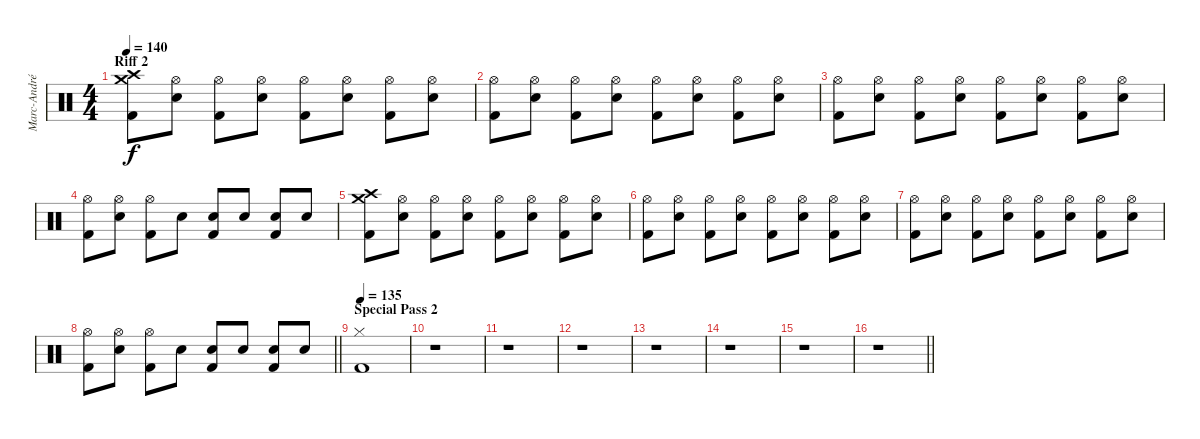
\track ("Marc-André Barabé" "Marc-André") {instrument percussion}
\staff {score}
\articulation defaults
\ts (4 4)
\section ("" "Riff 2")
\tempo 140
\clef neutral
\ks c
("Crash high (hit)" "Crash medium (hit)" "Kick (hit) 2").8{dy f} ("Hi-Hat (open)" "Electric Snare (hit)").8 ("Hi-Hat (open)" "Kick (hit) 2").8 ("Hi-Hat (open)" "Electric Snare (hit)").8 ("Hi-Hat (open)" "Kick (hit) 2"{tr (4 32)}).8 ("Hi-Hat (open)" "Electric Snare (hit)").8 ("Hi-Hat (open)" "Kick (hit) 2").8 ("Hi-Hat (open)" "Electric Snare (hit)").8 |
("Hi-Hat (open)" "Kick (hit) 2").8 ("Hi-Hat (open)" "Electric Snare (hit)").8 ("Hi-Hat (open)" "Kick (hit) 2").8 ("Hi-Hat (open)" "Electric Snare (hit)").8 ("Hi-Hat (open)" "Kick (hit) 2"{tr (4 32)}).8 ("Hi-Hat (open)" "Electric Snare (hit)").8 ("Hi-Hat (open)" "Kick (hit) 2").8 ("Hi-Hat (open)" "Electric Snare (hit)").8 |
("Hi-Hat (open)" "Kick (hit) 2").8 ("Hi-Hat (open)" "Electric Snare (hit)").8 ("Hi-Hat (open)" "Kick (hit) 2").8 ("Hi-Hat (open)" "Electric Snare (hit)").8 ("Hi-Hat (open)" "Kick (hit) 2"{tr (4 32)}).8 ("Hi-Hat (open)" "Electric Snare (hit)").8 ("Hi-Hat (open)" "Kick (hit) 2").8 ("Hi-Hat (open)" "Electric Snare (hit)").8 |
("Hi-Hat (open)" "Kick (hit) 2").8 ("Hi-Hat (open)" "Electric Snare (hit)").8 ("Hi-Hat (open)" "Kick (hit) 2").8 "Electric Snare (hit)"{tr (4 32)}.8 ("Electric Snare (hit)"{tr (4 32)} "Kick (hit) 2"{tr (4 32)}).8 "Electric Snare (hit)"{tr (4 32)}.8 ("Electric Snare (hit)"{tr (4 32)} "Kick (hit) 2").8 "Electric Snare (hit)"{tr (4 32)}.8 |
("Crash high (hit)" "Crash medium (hit)" "Kick (hit) 2").8 ("Hi-Hat (open)" "Electric Snare (hit)").8 ("Hi-Hat (open)" "Kick (hit) 2").8 ("Hi-Hat (open)" "Electric Snare (hit)").8 ("Hi-Hat (open)" "Kick (hit) 2"{tr (4 32)}).8 ("Hi-Hat (open)" "Electric Snare (hit)").8 ("Hi-Hat (open)" "Kick (hit) 2").8 ("Hi-Hat (open)" "Electric Snare (hit)").8 |
("Hi-Hat (open)" "Kick (hit) 2").8 ("Hi-Hat (open)" "Electric Snare (hit)").8 ("Hi-Hat (open)" "Kick (hit) 2").8 ("Hi-Hat (open)" "Electric Snare (hit)").8 ("Hi-Hat (open)" "Kick (hit) 2"{tr (4 32)}).8 ("Hi-Hat (open)" "Electric Snare (hit)").8 ("Hi-Hat (open)" "Kick (hit) 2").8 ("Hi-Hat (open)" "Electric Snare (hit)").8 |
("Hi-Hat (open)" "Kick (hit) 2").8 ("Hi-Hat (open)" "Electric Snare (hit)").8 ("Hi-Hat (open)" "Kick (hit) 2").8 ("Hi-Hat (open)" "Electric Snare (hit)").8 ("Hi-Hat (open)" "Kick (hit) 2"{tr (4 32)}).8 ("Hi-Hat (open)" "Electric Snare (hit)").8 ("Hi-Hat (open)" "Kick (hit) 2").8 ("Hi-Hat (open)" "Electric Snare (hit)").8 |
\barLineRight lightlight
("Hi-Hat (open)" "Kick (hit) 2").8 ("Hi-Hat (open)" "Electric Snare (hit)").8 ("Hi-Hat (open)" "Kick (hit) 2").8 "Electric Snare (hit)"{tr (4 32)}.8 ("Electric Snare (hit)"{tr (4 32)} "Kick (hit) 2"{tr (4 32)}).8 "Electric Snare (hit)"{tr (4 32)}.8 ("Electric Snare (hit)"{tr (4 32)} "Kick (hit) 2").8 "Electric Snare (hit)"{tr (4 32)}.8 |
\section ("" "Special Pass 2")
\tempo 135
("Hi-Hat (closed)" "Kick (hit) 2").1 |
r.1 |
r.1 |
r.1 |
r.1 |
r.1 |
r.1 |
\barLineRight lightlight
r.1
